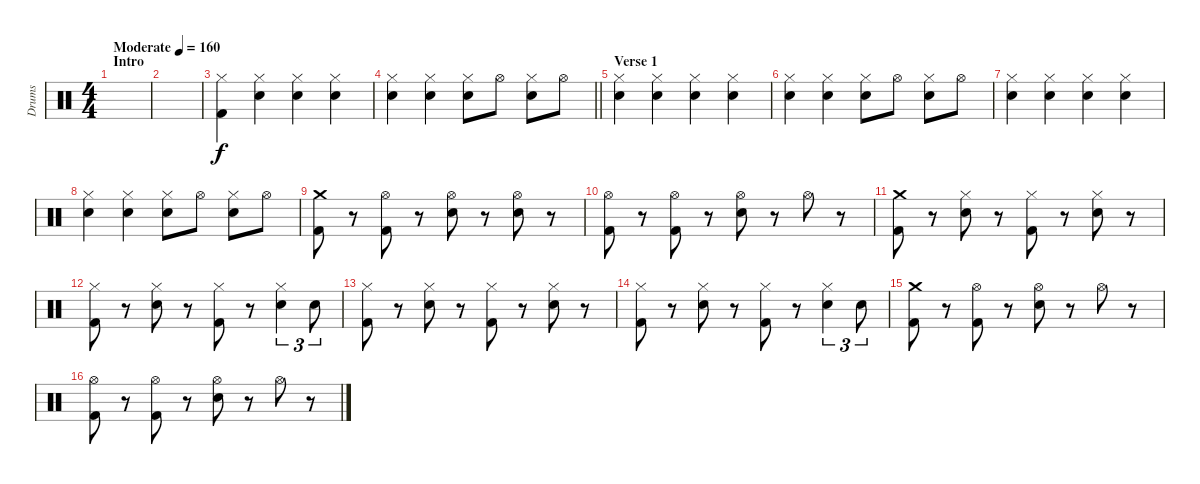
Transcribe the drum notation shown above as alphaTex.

\track ("Drums" "Drums") {instrument percussion}
\staff {score}
\articulation defaults
\ts (4 4)
\section ("" "Intro")
\tempo (160 "Moderate")
\clef neutral
\ks c
|
|
("Hi-Hat (closed)" "Kick (hit) 2").4 ("Hi-Hat (closed)" "Electric Snare (hit)").4 ("Hi-Hat (closed)" "Electric Snare (hit)").4 ("Hi-Hat (closed)" "Electric Snare (hit)").4 |
\barLineRight lightlight
("Hi-Hat (closed)" "Electric Snare (hit)").4 ("Hi-Hat (closed)" "Electric Snare (hit)").4 ("Hi-Hat (closed)" "Electric Snare (hit)").8 "Hi-Hat (open)".8 ("Hi-Hat (closed)" "Electric Snare (hit)").8 "Hi-Hat (open)".8 |
\section ("" "Verse 1")
("Hi-Hat (closed)" "Electric Snare (hit)").4 ("Hi-Hat (closed)" "Electric Snare (hit)").4 ("Hi-Hat (closed)" "Electric Snare (hit)").4 ("Hi-Hat (closed)" "Electric Snare (hit)").4 |
("Hi-Hat (closed)" "Electric Snare (hit)").4 ("Hi-Hat (closed)" "Electric Snare (hit)").4 ("Hi-Hat (closed)" "Electric Snare (hit)").8 "Hi-Hat (open)".8 ("Hi-Hat (closed)" "Electric Snare (hit)").8 "Hi-Hat (open)".8 |
("Hi-Hat (closed)" "Electric Snare (hit)").4 ("Hi-Hat (closed)" "Electric Snare (hit)").4 ("Hi-Hat (closed)" "Electric Snare (hit)").4 ("Hi-Hat (closed)" "Electric Snare (hit)").4 |
("Hi-Hat (closed)" "Electric Snare (hit)").4 ("Hi-Hat (closed)" "Electric Snare (hit)").4 ("Hi-Hat (closed)" "Electric Snare (hit)").8 "Hi-Hat (open)".8 ("Hi-Hat (closed)" "Electric Snare (hit)").8 "Hi-Hat (open)".8 |
("Crash medium (hit)" "Kick (hit) 2").8 r.8 ("Hi-Hat (open)" "Kick (hit) 2").8 r.8 ("Hi-Hat (open)" "Electric Snare (hit)").8 r.8 ("Hi-Hat (open)" "Electric Snare (hit)").8 r.8 |
("Hi-Hat (open)" "Kick (hit) 2").8 r.8 ("Hi-Hat (open)" "Kick (hit) 2").8 r.8 ("Hi-Hat (open)" "Electric Snare (hit)").8 r.8 "Hi-Hat (open)".8 r.8 |
("Crash medium (hit)" "Kick (hit) 2").8 r.8 ("Hi-Hat (closed)" "Electric Snare (hit)").8 r.8 ("Hi-Hat (closed)" "Kick (hit) 2").8 r.8 ("Hi-Hat (closed)" "Electric Snare (hit)").8 r.8 |
("Hi-Hat (closed)" "Kick (hit) 2").8 r.8 ("Hi-Hat (closed)" "Electric Snare (hit)").8 r.8 ("Hi-Hat (closed)" "Kick (hit) 2").8 r.8 ("Hi-Hat (closed)" "Electric Snare (hit)").4{tu (3 2)} "Electric Snare (hit)".8{tu (3 2)} |
("Hi-Hat (closed)" "Kick (hit) 2").8 r.8 ("Hi-Hat (closed)" "Electric Snare (hit)").8 r.8 ("Hi-Hat (closed)" "Kick (hit) 2").8 r.8 ("Hi-Hat (closed)" "Electric Snare (hit)").8 r.8 |
("Hi-Hat (closed)" "Kick (hit) 2").8 r.8 ("Hi-Hat (closed)" "Electric Snare (hit)").8 r.8 ("Hi-Hat (closed)" "Kick (hit) 2").8 r.8 ("Hi-Hat (closed)" "Electric Snare (hit)").4{tu (3 2)} "Electric Snare (hit)".8{tu (3 2)} |
("Crash medium (hit)" "Kick (hit) 2").8 r.8 ("Hi-Hat (open)" "Kick (hit) 2").8 r.8 ("Hi-Hat (open)" "Electric Snare (hit)").8 r.8 "Hi-Hat (open)".8 r.8 |
("Hi-Hat (open)" "Kick (hit) 2").8 r.8 ("Hi-Hat (open)" "Kick (hit) 2").8 r.8 ("Hi-Hat (open)" "Electric Snare (hit)").8 r.8 "Hi-Hat (open)".8 r.8
